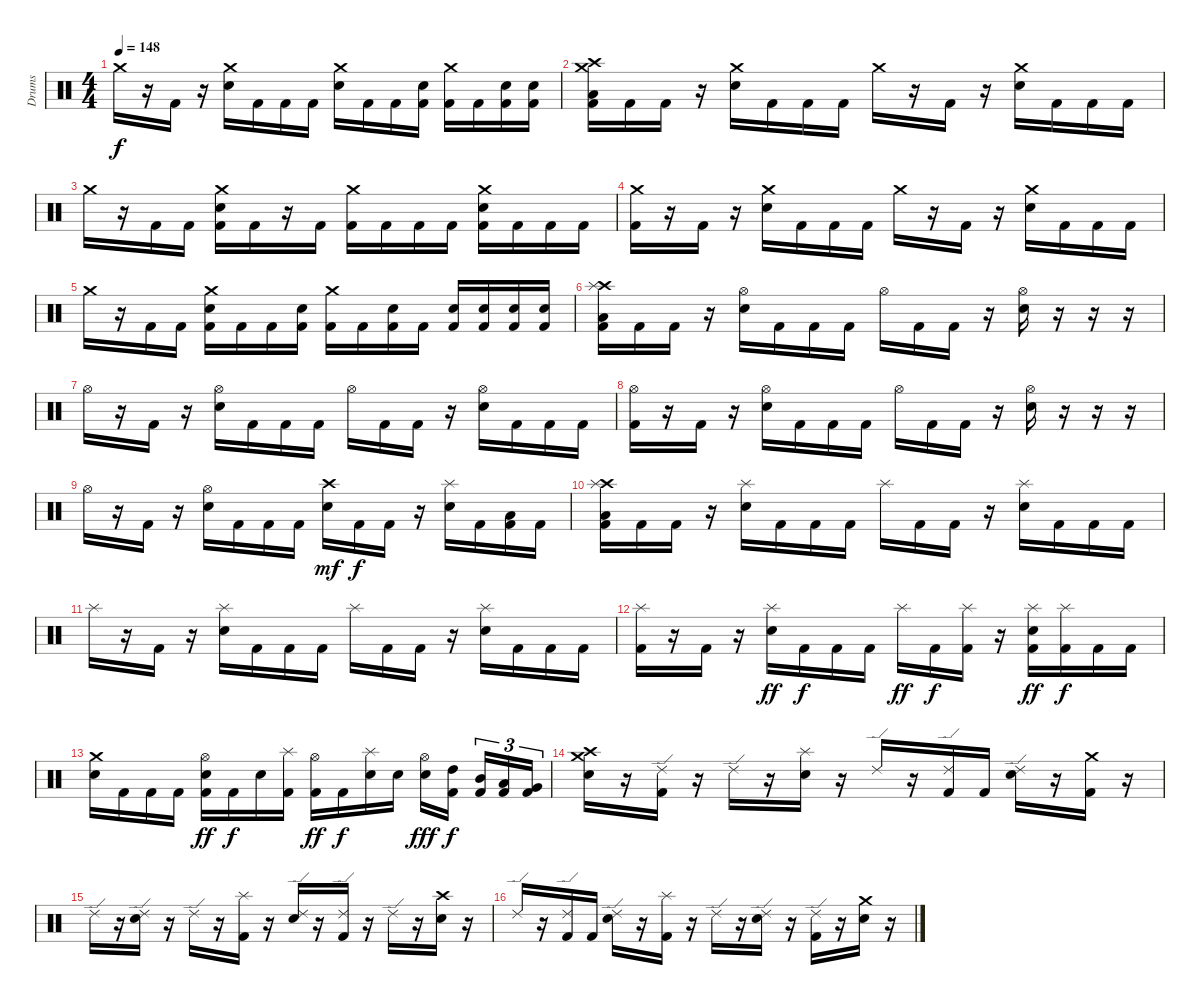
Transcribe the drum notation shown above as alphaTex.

\track ("Drums" "Drums") {instrument percussion}
\staff {score}
\articulation defaults
\ts (4 4)
\tempo 148
\clef neutral
\ks c "Crash medium (hit)".16{dy f}
r.16 "Kick (hit) 2".16 r.16 ("Crash medium (hit)" "Electric Snare (hit)").16 "Kick (hit) 2".16 "Kick (hit) 2".16 "Kick (hit) 2".16 ("Crash medium (hit)" "Electric Snare (hit)").16 "Kick (hit) 2".16 "Kick (hit) 2".16 ("Electric Snare (hit)" "Kick (hit) 2").16 ("Crash medium (hit)" "Kick (hit) 2").16 "Kick (hit) 2".16 ("Electric Snare (hit)" "Kick (hit) 2").16 ("Electric Snare (hit)" "Kick (hit) 2").16 |
("Crash high (hit)" "Crash medium (hit)" "Low Floor Tom (hit)" "Kick (hit) 2").16 "Kick (hit) 2".16 "Kick (hit) 2".16 r.16 ("Crash medium (hit)" "Electric Snare (hit)").16 "Kick (hit) 2".16 "Kick (hit) 2".16 "Kick (hit) 2".16 "Crash medium (hit)".16 r.16 "Kick (hit) 2".16 r.16 ("Crash medium (hit)" "Electric Snare (hit)").16 "Kick (hit) 2".16 "Kick (hit) 2".16 "Kick (hit) 2".16 |
"Crash medium (hit)".16 r.16 "Kick (hit) 2".16 "Kick (hit) 2".16 ("Crash medium (hit)" "Electric Snare (hit)" "Kick (hit) 2").16 "Kick (hit) 2".16 r.16 "Kick (hit) 2".16 ("Crash medium (hit)" "Kick (hit) 2").16 "Kick (hit) 2".16 "Kick (hit) 2".16 "Kick (hit) 2".16 ("Crash medium (hit)" "Electric Snare (hit)" "Kick (hit) 2").16 "Kick (hit) 2".16 "Kick (hit) 2".16 "Kick (hit) 2".16 |
("Crash medium (hit)" "Kick (hit) 2").16 r.16 "Kick (hit) 2".16 r.16 ("Crash medium (hit)" "Electric Snare (hit)").16 "Kick (hit) 2".16 "Kick (hit) 2".16 "Kick (hit) 2".16 "Crash medium (hit)".16 r.16 "Kick (hit) 2".16 r.16 ("Crash medium (hit)" "Electric Snare (hit)").16 "Kick (hit) 2".16 "Kick (hit) 2".16 "Kick (hit) 2".16 |
"Crash medium (hit)".16 r.16 "Kick (hit) 2".16 "Kick (hit) 2".16 ("Crash medium (hit)" "Electric Snare (hit)" "Kick (hit) 2").16 "Kick (hit) 2".16 "Kick (hit) 2".16 ("Electric Snare (hit)" "Kick (hit) 2").16 ("Crash medium (hit)" "Kick (hit) 2").16 "Kick (hit) 2".16 ("Electric Snare (hit)" "Kick (hit) 2").16 "Kick (hit) 2".16 ("Electric Snare (hit)" "Kick (hit) 2").16 ("Electric Snare (hit)" "Kick (hit) 2").16 ("Electric Snare (hit)" "Kick (hit) 2").16 ("Electric Snare (hit)" "Kick (hit) 2").16 |
("Crash high (hit)" "Splash (hit)" "Low Floor Tom (hit)" "Kick (hit) 2").16 "Kick (hit) 2".16 "Kick (hit) 2".16 r.16 ("Hi-Hat (open)" "Electric Snare (hit)").16 "Kick (hit) 2".16 "Kick (hit) 2".16 "Kick (hit) 2".16 "Hi-Hat (open)".16 "Kick (hit) 2".16 "Kick (hit) 2".16 r.16 ("Hi-Hat (open)" "Electric Snare (hit)").16 r.16 r.16 r.16 |
"Hi-Hat (open)".16 r.16 "Kick (hit) 2".16 r.16 ("Hi-Hat (open)" "Electric Snare (hit)").16 "Kick (hit) 2".16 "Kick (hit) 2".16 "Kick (hit) 2".16 "Hi-Hat (open)".16 "Kick (hit) 2".16 "Kick (hit) 2".16 r.16 ("Hi-Hat (open)" "Electric Snare (hit)").16 "Kick (hit) 2".16 "Kick (hit) 2".16 "Kick (hit) 2".16 |
("Hi-Hat (open)" "Kick (hit) 2").16 r.16 "Kick (hit) 2".16 r.16 ("Hi-Hat (open)" "Electric Snare (hit)").16 "Kick (hit) 2".16 "Kick (hit) 2".16 "Kick (hit) 2".16 "Hi-Hat (open)".16 "Kick (hit) 2".16 "Kick (hit) 2".16 r.16 ("Hi-Hat (open)" "Electric Snare (hit)").16 r.16 r.16 r.16 |
"Hi-Hat (open)".16 r.16 "Kick (hit) 2".16 r.16 ("Hi-Hat (open)" "Electric Snare (hit)").16 "Kick (hit) 2".16 "Kick (hit) 2".16 "Kick (hit) 2".16 ("Crash high (hit)" "Electric Snare (hit)").16{dy mf} "Kick (hit) 2".16{dy f} "Kick (hit) 2".16 r.16 ("Splash (hit)" "Electric Snare (hit)").16 "Kick (hit) 2".16 ("Low Tom (hit)" "Kick (hit) 2").16 "Kick (hit) 2".16 |
("Crash high (hit)" "Splash (hit)" "Low Floor Tom (hit)" "Kick (hit) 2").16 "Kick (hit) 2".16 "Kick (hit) 2".16 r.16 ("Splash (hit)" "Electric Snare (hit)").16 "Kick (hit) 2".16 "Kick (hit) 2".16 "Kick (hit) 2".16 "Splash (hit)".16 "Kick (hit) 2".16 "Kick (hit) 2".16 r.16 ("Splash (hit)" "Electric Snare (hit)").16 "Kick (hit) 2".16 "Kick (hit) 2".16 "Kick (hit) 2".16 |
"Splash (hit)".16 r.16 "Kick (hit) 2".16 r.16 ("Splash (hit)" "Electric Snare (hit)").16 "Kick (hit) 2".16 "Kick (hit) 2".16 "Kick (hit) 2".16 "Splash (hit)".16 "Kick (hit) 2".16 "Kick (hit) 2".16 r.16 ("Splash (hit)" "Electric Snare (hit)").16 "Kick (hit) 2".16 "Kick (hit) 2".16 "Kick (hit) 2".16 |
("Splash (hit)" "Kick (hit) 2").16 r.16 "Kick (hit) 2".16 r.16 ("Splash (hit)" "Electric Snare (hit)").16{dy ff} "Kick (hit) 2".16{dy f} "Kick (hit) 2".16 "Kick (hit) 2".16 "Splash (hit)".16{dy ff} "Kick (hit) 2".16{dy f} ("Splash (hit)" "Kick (hit) 2").16 r.16 ("Splash (hit)" "Electric Snare (hit)" "Kick (hit) 2").16{dy ff} ("Splash (hit)" "Kick (hit) 2").16{dy f} "Kick (hit) 2".16 "Kick (hit) 2".16 |
("Crash medium (hit)" "Electric Snare (hit)").16 "Kick (hit) 2".16 "Kick (hit) 2".16 "Kick (hit) 2".16 ("Hi-Hat (open)" "Electric Snare (hit)" "Kick (hit) 2").16{dy ff} "Kick (hit) 2".16{dy f} "Electric Snare (hit)".16 ("Splash (hit)" "Kick (hit) 2").16 ("Hi-Hat (open)" "Kick (hit) 2").16{dy ff} "Kick (hit) 2".16{dy f} ("Splash (hit)" "Electric Snare (hit)").16 "Electric Snare (hit)".16 ("Hi-Hat (open)" "Electric Snare (hit)").16{dy fff} ("High Tom (hit)" "Kick (hit) 2").16{dy f} ("Mid Tom (hit)" "Kick (hit) 2").16{tu (3 2)} ("Low Tom (hit)" "Kick (hit) 2").16{tu (3 2)} ("Very Low Tom (hit)" "Kick (hit) 2").16{tu (3 2)} |
("Crash medium (hit)" "Crash high (hit)" "Electric Snare (hit)").16 r.16 ("Ride (edge) 2" "Kick (hit) 2").16 r.16 "Ride (edge) 2".16 r.16 ("Splash (hit)" "Electric Snare (hit)").16 r.16 "Ride (edge) 2".16 r.16 ("Ride (edge) 2" "Kick (hit) 2").16 "Kick (hit) 2".16 ("Ride (edge) 2" "Electric Snare (hit)").16 r.16 ("Crash medium (hit)" "Kick (hit) 2").16 r.16 |
"Ride (edge) 2".16 r.16 ("Ride (edge) 2" "Electric Snare (hit)").16 r.16 "Ride (edge) 2".16 r.16 ("Splash (hit)" "Kick (hit) 2").16 r.16 ("Ride (edge) 2" "Electric Snare (hit)").16 r.16 ("Ride (edge) 2" "Kick (hit) 2").16 r.16 "Ride (edge) 2".16 r.16 ("Crash high (hit)" "Electric Snare (hit)").16 r.16 |
"Ride (edge) 2".16 r.16 ("Ride (edge) 2" "Kick (hit) 2").16 "Kick (hit) 2".16 ("Ride (edge) 2" "Electric Snare (hit)").16 r.16 ("Splash (hit)" "Kick (hit) 2").16 r.16 "Ride (edge) 2".16 r.16 ("Ride (edge) 2" "Electric Snare (hit)").16 r.16 ("Ride (edge) 2" "Kick (hit) 2").16 r.16 ("Crash medium (hit)" "Electric Snare (hit)").16 r.16
